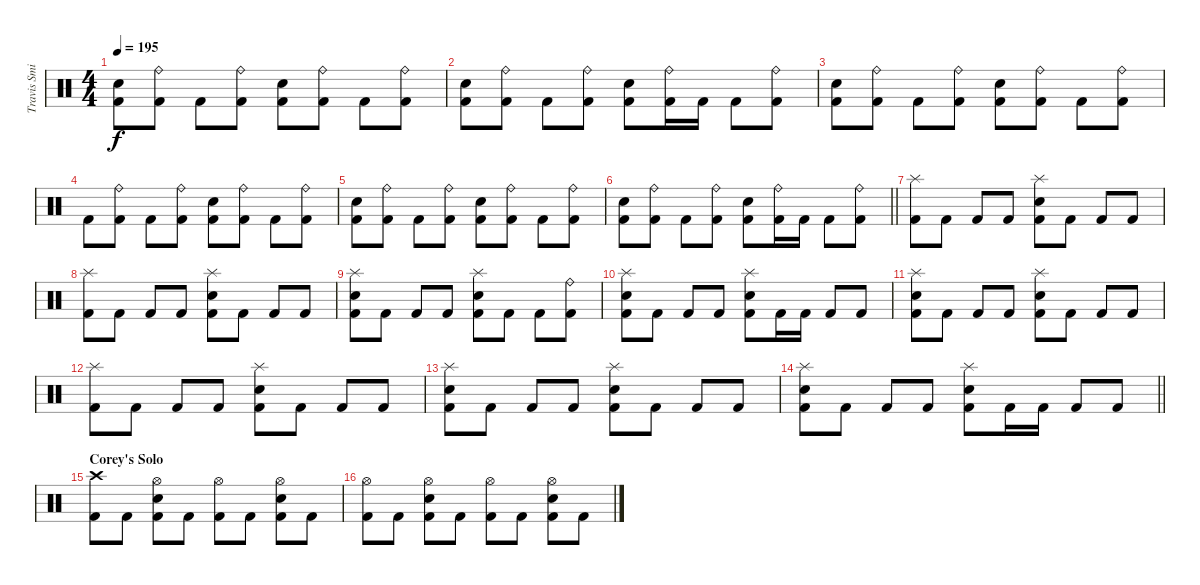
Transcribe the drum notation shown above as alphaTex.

\track ("Travis Smith" "Travis Smi") {instrument percussion}
\staff {score}
\articulation defaults
\ts (4 4)
\tempo 195
\clef neutral
\ks c
("Snare (hit) 2" "Kick (hit) 2").8{dy f} ("Ride (bell)" "Kick (hit) 2").8 "Kick (hit) 2".8 ("Ride (bell)" "Kick (hit) 2").8 ("Snare (hit) 2" "Kick (hit) 2").8 ("Ride (bell)" "Kick (hit) 2").8 "Kick (hit) 2".8 ("Ride (bell)" "Kick (hit) 2").8 |
("Snare (hit) 2" "Kick (hit) 2").8 ("Ride (bell)" "Kick (hit) 2").8 "Kick (hit) 2".8 ("Ride (bell)" "Kick (hit) 2").8 ("Snare (hit) 2" "Kick (hit) 2").8 ("Ride (bell)" "Kick (hit) 2").16 "Kick (hit) 2".16 "Kick (hit) 2".8 ("Ride (bell)" "Kick (hit) 2").8 |
("Snare (hit) 2" "Kick (hit) 2").8 ("Ride (bell)" "Kick (hit) 2").8 "Kick (hit) 2".8 ("Ride (bell)" "Kick (hit) 2").8 ("Snare (hit) 2" "Kick (hit) 2").8 ("Ride (bell)" "Kick (hit) 2").8 "Kick (hit) 2".8 ("Ride (bell)" "Kick (hit) 2").8 |
"Kick (hit) 2".8 ("Ride (bell)" "Kick (hit) 2").8 "Kick (hit) 2".8 ("Ride (bell)" "Kick (hit) 2").8 ("Snare (hit) 2" "Kick (hit) 2").8 ("Ride (bell)" "Kick (hit) 2").8 "Kick (hit) 2".8 ("Ride (bell)" "Kick (hit) 2").8 |
("Snare (hit) 2" "Kick (hit) 2").8 ("Ride (bell)" "Kick (hit) 2").8 "Kick (hit) 2".8 ("Ride (bell)" "Kick (hit) 2").8 ("Snare (hit) 2" "Kick (hit) 2").8 ("Ride (bell)" "Kick (hit) 2").8 "Kick (hit) 2".8 ("Ride (bell)" "Kick (hit) 2").8 |
\barLineRight lightlight
("Snare (hit) 2" "Kick (hit) 2").8 ("Ride (bell)" "Kick (hit) 2").8 "Kick (hit) 2".8 ("Ride (bell)" "Kick (hit) 2").8 ("Snare (hit) 2" "Kick (hit) 2").8 ("Ride (bell)" "Kick (hit) 2").16 "Kick (hit) 2".16 "Kick (hit) 2".8 ("Ride (bell)" "Kick (hit) 2").8 |
("Splash (hit)" "Kick (hit) 2").8 "Kick (hit) 2".8 "Kick (hit) 2".8 "Kick (hit) 2".8 ("Splash (hit)" "Snare (hit) 2" "Kick (hit) 2").8 "Kick (hit) 2".8 "Kick (hit) 2".8 "Kick (hit) 2".8 |
("Splash (hit)" "Kick (hit) 2").8 "Kick (hit) 2".8 "Kick (hit) 2".8 "Kick (hit) 2".8 ("Splash (hit)" "Snare (hit) 2" "Kick (hit) 2").8 "Kick (hit) 2".8 "Kick (hit) 2".8 "Kick (hit) 2".8 |
("Splash (hit)" "Snare (hit) 2" "Kick (hit) 2").8 "Kick (hit) 2".8 "Kick (hit) 2".8 "Kick (hit) 2".8 ("Splash (hit)" "Snare (hit) 2" "Kick (hit) 2").8 "Kick (hit) 2".8 "Kick (hit) 2".8 ("Ride (bell)" "Kick (hit) 2").8 |
("Splash (hit)" "Snare (hit) 2" "Kick (hit) 2").8 "Kick (hit) 2".8 "Kick (hit) 2".8 "Kick (hit) 2".8 ("Splash (hit)" "Snare (hit) 2" "Kick (hit) 2").8 "Kick (hit) 2".16 "Kick (hit) 2".16 "Kick (hit) 2".8 "Kick (hit) 2".8 |
("Splash (hit)" "Snare (hit) 2" "Kick (hit) 2").8 "Kick (hit) 2".8 "Kick (hit) 2".8 "Kick (hit) 2".8 ("Splash (hit)" "Snare (hit) 2" "Kick (hit) 2").8 "Kick (hit) 2".8 "Kick (hit) 2".8 "Kick (hit) 2".8 |
("Splash (hit)" "Kick (hit) 2").8 "Kick (hit) 2".8 "Kick (hit) 2".8 "Kick (hit) 2".8 ("Splash (hit)" "Snare (hit) 2" "Kick (hit) 2").8 "Kick (hit) 2".8 "Kick (hit) 2".8 "Kick (hit) 2".8 |
("Splash (hit)" "Snare (hit) 2" "Kick (hit) 2").8 "Kick (hit) 2".8 "Kick (hit) 2".8 "Kick (hit) 2".8 ("Splash (hit)" "Snare (hit) 2" "Kick (hit) 2").8 "Kick (hit) 2".8 "Kick (hit) 2".8 "Kick (hit) 2".8 |
\barLineRight lightlight
("Splash (hit)" "Snare (hit) 2" "Kick (hit) 2").8 "Kick (hit) 2".8 "Kick (hit) 2".8 "Kick (hit) 2".8 ("Splash (hit)" "Snare (hit) 2" "Kick (hit) 2").8 "Kick (hit) 2".16 "Kick (hit) 2".16 "Kick (hit) 2".8 "Kick (hit) 2".8 |
\section ("" "Corey's Solo")
("Crash high (hit)" "Kick (hit) 2").8 "Kick (hit) 2".8 ("Hi-Hat (open)" "Snare (hit) 2" "Kick (hit) 2").8 "Kick (hit) 2".8 ("Hi-Hat (open)" "Kick (hit) 2").8 "Kick (hit) 2".8 ("Hi-Hat (open)" "Snare (hit) 2" "Kick (hit) 2").8 "Kick (hit) 2".8 |
("Hi-Hat (open)" "Kick (hit) 2").8 "Kick (hit) 2".8 ("Hi-Hat (open)" "Snare (hit) 2" "Kick (hit) 2").8 "Kick (hit) 2".8 ("Hi-Hat (open)" "Kick (hit) 2").8 "Kick (hit) 2".8 ("Hi-Hat (open)" "Snare (hit) 2" "Kick (hit) 2").8 "Kick (hit) 2".8
